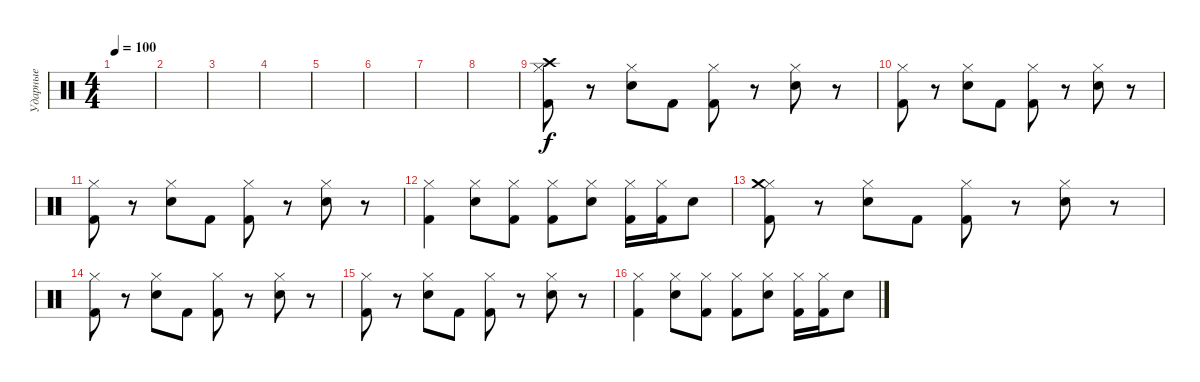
\track ("Ударные" "Ударные") {instrument percussion}
\staff {score}
\articulation defaults
\ts (4 4)
\tempo 100
\clef neutral
\ks c
|
|
|
|
|
|
|
|
("Hi-Hat (closed)" "Crash high (hit)" "Kick (hit) 2").8 r.8 ("Hi-Hat (closed)" "Snare (hit) 2").8 "Kick (hit) 2".8 ("Hi-Hat (closed)" "Kick (hit) 2").8 r.8 ("Hi-Hat (closed)" "Snare (hit) 2").8 r.8 |
("Hi-Hat (closed)" "Kick (hit) 2").8 r.8 ("Hi-Hat (closed)" "Snare (hit) 2").8 "Kick (hit) 2".8 ("Hi-Hat (closed)" "Kick (hit) 2").8 r.8 ("Hi-Hat (closed)" "Snare (hit) 2").8 r.8 |
("Hi-Hat (closed)" "Kick (hit) 2").8 r.8 ("Hi-Hat (closed)" "Snare (hit) 2").8 "Kick (hit) 2".8 ("Hi-Hat (closed)" "Kick (hit) 2").8 r.8 ("Hi-Hat (closed)" "Snare (hit) 2").8 r.8 |
("Kick (hit) 2" "Hi-Hat (closed)").4 ("Snare (hit) 2" "Hi-Hat (closed)").8 ("Kick (hit) 2" "Hi-Hat (closed)").8 ("Kick (hit) 2" "Hi-Hat (closed)").8 ("Snare (hit) 2" "Hi-Hat (closed)").8 ("Kick (hit) 2" "Hi-Hat (closed)").16 ("Kick (hit) 2" "Hi-Hat (closed)").16 "Snare (hit) 2".8 |
("Hi-Hat (closed)" "Crash medium (hit)" "Kick (hit) 2").8 r.8 ("Hi-Hat (closed)" "Snare (hit) 2").8 "Kick (hit) 2".8 ("Hi-Hat (closed)" "Kick (hit) 2").8 r.8 ("Hi-Hat (closed)" "Snare (hit) 2").8 r.8 |
("Hi-Hat (closed)" "Kick (hit) 2").8 r.8 ("Hi-Hat (closed)" "Snare (hit) 2").8 "Kick (hit) 2".8 ("Hi-Hat (closed)" "Kick (hit) 2").8 r.8 ("Hi-Hat (closed)" "Snare (hit) 2").8 r.8 |
("Hi-Hat (closed)" "Kick (hit) 2").8 r.8 ("Hi-Hat (closed)" "Snare (hit) 2").8 "Kick (hit) 2".8 ("Hi-Hat (closed)" "Kick (hit) 2").8 r.8 ("Hi-Hat (closed)" "Snare (hit) 2").8 r.8 |
("Kick (hit) 2" "Hi-Hat (closed)").4 ("Snare (hit) 2" "Hi-Hat (closed)").8 ("Kick (hit) 2" "Hi-Hat (closed)").8 ("Kick (hit) 2" "Hi-Hat (closed)").8 ("Snare (hit) 2" "Hi-Hat (closed)").8 ("Kick (hit) 2" "Hi-Hat (closed)").16 ("Kick (hit) 2" "Hi-Hat (closed)").16 "Snare (hit) 2".8
